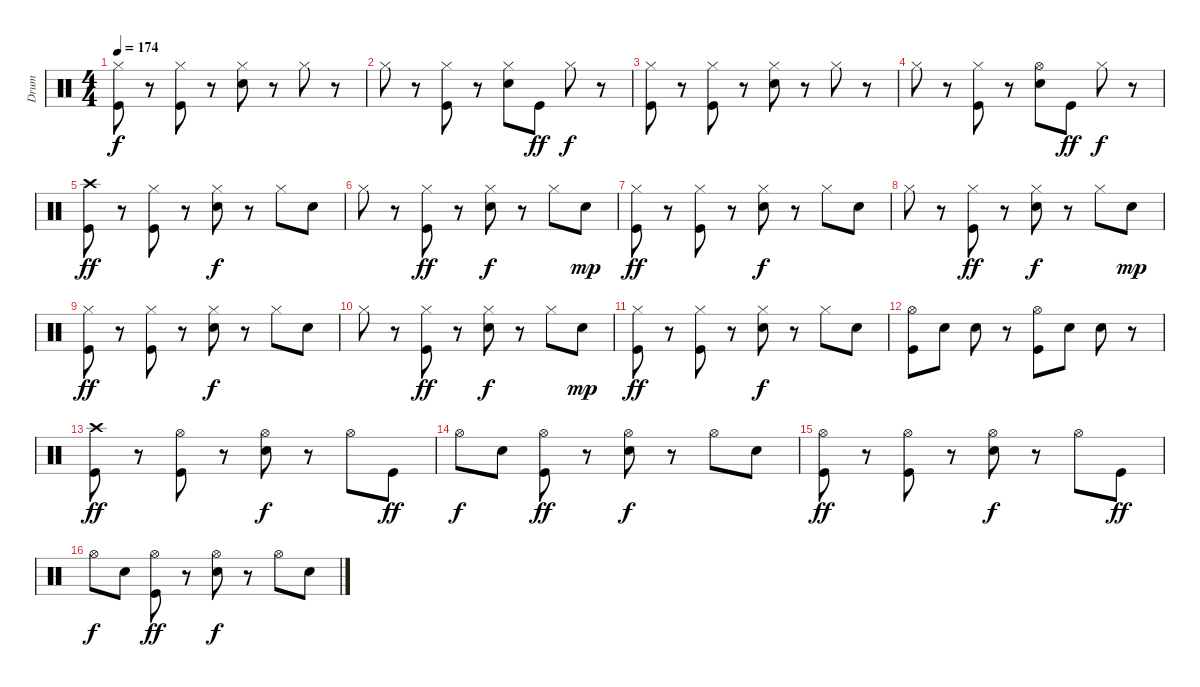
\track ("Drum" "Drum") {instrument percussion}
\staff {score}
\articulation defaults
\ts (4 4)
\tempo 174
\clef neutral
\ks c
("Hi-Hat (closed)" "Kick (hit)").8{dy f} r.8 ("Hi-Hat (closed)" "Kick (hit)").8 r.8 ("Hi-Hat (closed)" "Snare (hit) 2").8 r.8 "Hi-Hat (closed)".8 r.8 |
"Hi-Hat (closed)".8 r.8 ("Hi-Hat (closed)" "Kick (hit)").8 r.8 ("Hi-Hat (closed)" "Snare (hit) 2").8 "Kick (hit)".8{dy ff} "Hi-Hat (closed)".8{dy f} r.8 |
("Hi-Hat (closed)" "Kick (hit)").8 r.8 ("Hi-Hat (closed)" "Kick (hit)").8 r.8 ("Hi-Hat (closed)" "Snare (hit) 2").8 r.8 "Hi-Hat (closed)".8 r.8 |
"Hi-Hat (closed)".8 r.8 ("Hi-Hat (closed)" "Kick (hit)").8 r.8 ("Hi-Hat (open)" "Snare (hit) 2").8 "Kick (hit)".8{dy ff} "Hi-Hat (closed)".8{dy f} r.8 |
("Crash high (hit)" "Kick (hit)").8{dy ff} r.8 ("Hi-Hat (closed)" "Kick (hit)").8 r.8 ("Hi-Hat (closed)" "Snare (hit) 2").8{dy f} r.8 "Hi-Hat (closed)".8 "Snare (hit) 2".8 |
"Hi-Hat (closed)".8 r.8 ("Hi-Hat (closed)" "Kick (hit)").8{dy ff} r.8 ("Hi-Hat (closed)" "Snare (hit) 2").8{dy f} r.8 "Hi-Hat (closed)".8 "Snare (hit) 2".8{dy mp} |
("Hi-Hat (closed)" "Kick (hit)").8{dy ff} r.8 ("Hi-Hat (closed)" "Kick (hit)").8 r.8 ("Hi-Hat (closed)" "Snare (hit) 2").8{dy f} r.8 "Hi-Hat (closed)".8 "Snare (hit) 2".8 |
"Hi-Hat (closed)".8 r.8 ("Hi-Hat (closed)" "Kick (hit)").8{dy ff} r.8 ("Hi-Hat (closed)" "Snare (hit) 2").8{dy f} r.8 "Hi-Hat (closed)".8 "Snare (hit) 2".8{dy mp} |
("Hi-Hat (closed)" "Kick (hit)").8{dy ff} r.8 ("Hi-Hat (closed)" "Kick (hit)").8 r.8 ("Hi-Hat (closed)" "Snare (hit) 2").8{dy f} r.8 "Hi-Hat (closed)".8 "Snare (hit) 2".8 |
"Hi-Hat (closed)".8 r.8 ("Hi-Hat (closed)" "Kick (hit)").8{dy ff} r.8 ("Hi-Hat (closed)" "Snare (hit) 2").8{dy f} r.8 "Hi-Hat (closed)".8 "Snare (hit) 2".8{dy mp} |
("Hi-Hat (closed)" "Kick (hit)").8{dy ff} r.8 ("Hi-Hat (closed)" "Kick (hit)").8 r.8 ("Hi-Hat (closed)" "Snare (hit) 2").8{dy f} r.8 "Hi-Hat (closed)".8 "Snare (hit) 2".8 |
("Hi-Hat (open)" "Kick (hit)").8 "Snare (hit) 2".8 "Snare (hit) 2".8 r.8 ("Hi-Hat (open)" "Kick (hit)").8 "Snare (hit) 2".8 "Snare (hit) 2".8 r.8 |
("Crash high (hit)" "Kick (hit)").8{dy ff} r.8 ("Hi-Hat (open)" "Kick (hit)").8 r.8 ("Hi-Hat (open)" "Snare (hit) 2").8{dy f} r.8 "Hi-Hat (open)".8 "Kick (hit)".8{dy ff} |
"Hi-Hat (open)".8{dy f} "Snare (hit) 2".8 ("Hi-Hat (open)" "Kick (hit)").8{dy ff} r.8 ("Hi-Hat (open)" "Snare (hit) 2").8{dy f} r.8 "Hi-Hat (open)".8 "Snare (hit) 2".8 |
("Hi-Hat (open)" "Kick (hit)").8{dy ff} r.8 ("Hi-Hat (open)" "Kick (hit)").8 r.8 ("Hi-Hat (open)" "Snare (hit) 2").8{dy f} r.8 "Hi-Hat (open)".8 "Kick (hit)".8{dy ff} |
"Hi-Hat (open)".8{dy f} "Snare (hit) 2".8 ("Hi-Hat (open)" "Kick (hit)").8{dy ff} r.8 ("Hi-Hat (open)" "Snare (hit) 2").8{dy f} r.8 "Hi-Hat (open)".8 "Snare (hit) 2".8
